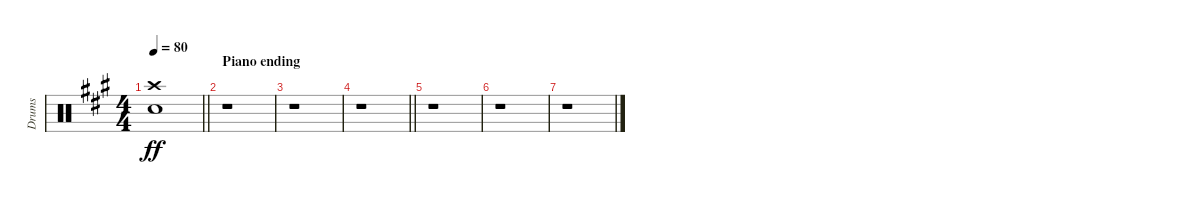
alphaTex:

\track ("Drums" "Drums") {instrument percussion}
\staff {score}
\articulation defaults
\ts (4 4)
\tempo 80
\clef neutral
\barLineRight lightlight
\ks f#minor
("Crash high (hit)" "Electric Snare (hit)").1{dy ff} |
\section ("" "Piano ending")
r.1 |
r.1 |
\barLineRight lightlight
r.1 |
r.1 |
r.1 |
r.1
